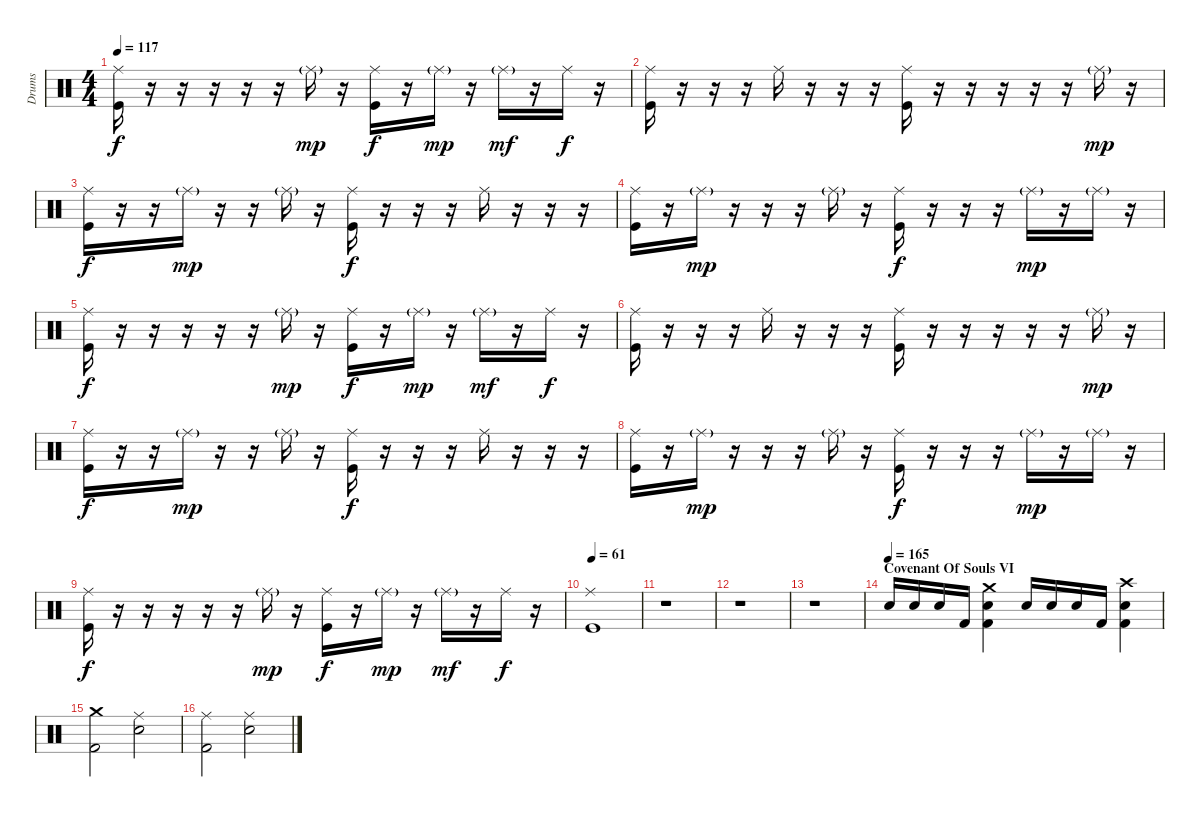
\track ("Drums" "Drums") {instrument percussion}
\staff {score}
\articulation defaults
\ts (4 4)
\tempo 117
\clef neutral
\ks c
("Ride (middle)" "Kick (hit)").16{dy f} r.16 r.16 r.16 r.16 r.16 "Ride (middle)"{g}.16{dy mp} r.16 ("Ride (middle)" "Kick (hit)").16{dy f} r.16 "Ride (middle)"{g}.16{dy mp} r.16 "Ride (middle)"{g}.16{dy mf} r.16 "Ride (middle)".16{dy f} r.16 |
("Ride (middle)" "Kick (hit)").16 r.16 r.16 r.16 "Ride (middle)".16 r.16 r.16 r.16 ("Ride (middle)" "Kick (hit)").16 r.16 r.16 r.16 r.16 r.16 "Ride (middle)"{g}.16{dy mp} r.16 |
("Ride (middle)" "Kick (hit)").16{dy f} r.16 r.16 "Ride (middle)"{g}.16{dy mp} r.16 r.16 "Ride (middle)"{g}.16 r.16 ("Ride (middle)" "Kick (hit)").16{dy f} r.16 r.16 r.16 "Ride (middle)".16 r.16 r.16 r.16 |
("Ride (middle)" "Kick (hit)").16 r.16 "Ride (middle)"{g}.16{dy mp} r.16 r.16 r.16 "Ride (middle)"{g}.16 r.16 ("Ride (middle)" "Kick (hit)").16{dy f} r.16 r.16 r.16 "Ride (middle)"{g}.16{dy mp} r.16 "Ride (middle)"{g}.16 r.16 |
("Ride (middle)" "Kick (hit)").16{dy f} r.16 r.16 r.16 r.16 r.16 "Ride (middle)"{g}.16{dy mp} r.16 ("Ride (middle)" "Kick (hit)").16{dy f} r.16 "Ride (middle)"{g}.16{dy mp} r.16 "Ride (middle)"{g}.16{dy mf} r.16 "Ride (middle)".16{dy f} r.16 |
("Ride (middle)" "Kick (hit)").16 r.16 r.16 r.16 "Ride (middle)".16 r.16 r.16 r.16 ("Ride (middle)" "Kick (hit)").16 r.16 r.16 r.16 r.16 r.16 "Ride (middle)"{g}.16{dy mp} r.16 |
("Ride (middle)" "Kick (hit)").16{dy f} r.16 r.16 "Ride (middle)"{g}.16{dy mp} r.16 r.16 "Ride (middle)"{g}.16 r.16 ("Ride (middle)" "Kick (hit)").16{dy f} r.16 r.16 r.16 "Ride (middle)".16 r.16 r.16 r.16 |
("Ride (middle)" "Kick (hit)").16 r.16 "Ride (middle)"{g}.16{dy mp} r.16 r.16 r.16 "Ride (middle)"{g}.16 r.16 ("Ride (middle)" "Kick (hit)").16{dy f} r.16 r.16 r.16 "Ride (middle)"{g}.16{dy mp} r.16 "Ride (middle)"{g}.16 r.16 |
("Ride (middle)" "Kick (hit)").16{dy f} r.16 r.16 r.16 r.16 r.16 "Ride (middle)"{g}.16{dy mp} r.16 ("Ride (middle)" "Kick (hit)").16{dy f} r.16 "Ride (middle)"{g}.16{dy mp} r.16 "Ride (middle)"{g}.16{dy mf} r.16 "Ride (middle)".16{dy f} r.16 |
\section ("" "")
\tempo 61
("Ride (middle)" "Kick (hit)").1 |
r.1 |
r.1 |
r.1 |
\section ("" "Covenant Of Souls VI")
\tempo (165)
"Electric Snare (hit)".16 "Electric Snare (hit)".16 "Electric Snare (hit)".16 "Kick (hit) 2".16 ("Crash medium (hit)" "Electric Snare (hit)" "Kick (hit) 2").4 "Electric Snare (hit)".16 "Electric Snare (hit)".16 "Electric Snare (hit)".16 "Kick (hit) 2".16 ("Crash high (hit)" "Electric Snare (hit)" "Kick (hit) 2").4 |
("Crash medium (hit)" "Kick (hit) 2").2 ("Ride (middle)" "Electric Snare (hit)").2 |
("Ride (middle)" "Kick (hit) 2").2 ("Ride (middle)" "Electric Snare (hit)").2
